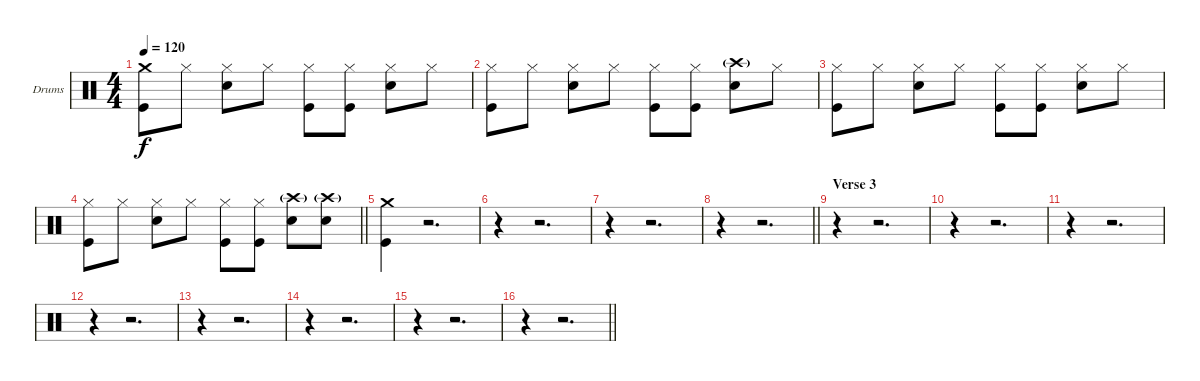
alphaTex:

\bracketExtendMode groupsimilarinstruments
\firstSystemTrackNameOrientation horizontal
\otherSystemsTrackNameOrientation horizontal
\track ("Drumkit" "Drums") {instrument percussion}
\staff {score}
\articulation defaults
\ts (4 4)
\tempo 120
\clef neutral
\ks c
("Crash medium (hit)" "Kick (hit)").8{dy f} "Hi-Hat (closed)".8 ("Hi-Hat (closed)" "Snare (hit) 2").8 "Hi-Hat (closed)".8 ("Hi-Hat (closed)" "Kick (hit)").8 ("Hi-Hat (closed)" "Kick (hit)").8 ("Hi-Hat (closed)" "Snare (hit) 2").8 "Hi-Hat (closed)".8 |
("Hi-Hat (closed)" "Kick (hit)").8 "Hi-Hat (closed)".8 ("Hi-Hat (closed)" "Snare (hit) 2").8 "Hi-Hat (closed)".8 ("Hi-Hat (closed)" "Kick (hit)").8 ("Hi-Hat (closed)" "Kick (hit)").8 ("Crash high (hit)"{g} "Snare (hit) 2").8 "Hi-Hat (closed)".8 |
("Hi-Hat (closed)" "Kick (hit)").8 "Hi-Hat (closed)".8 ("Hi-Hat (closed)" "Snare (hit) 2").8 "Hi-Hat (closed)".8 ("Hi-Hat (closed)" "Kick (hit)").8 ("Hi-Hat (closed)" "Kick (hit)").8 ("Hi-Hat (closed)" "Snare (hit) 2").8 "Hi-Hat (closed)".8 |
\barLineRight lightlight
("Hi-Hat (closed)" "Kick (hit)").8 "Hi-Hat (closed)".8 ("Hi-Hat (closed)" "Snare (hit) 2").8 "Hi-Hat (closed)".8 ("Hi-Hat (closed)" "Kick (hit)").8 ("Hi-Hat (closed)" "Kick (hit)").8 ("Crash high (hit)"{g} "Snare (hit) 2").8 ("Crash high (hit)"{g} "Snare (hit) 2").8 |
\section ("" "")
("Crash medium (hit)" "Kick (hit)").4 r.2{d} |
r.4 r.2{d} |
r.4 r.2{d} |
\barLineRight lightlight
r.4 r.2{d} |
\section ("" "Verse 3")
r.4 r.2{d} |
r.4 r.2{d} |
r.4 r.2{d} |
r.4 r.2{d} |
r.4 r.2{d} |
r.4 r.2{d} |
r.4 r.2{d} |
\barLineRight lightlight
r.4 r.2{d}
